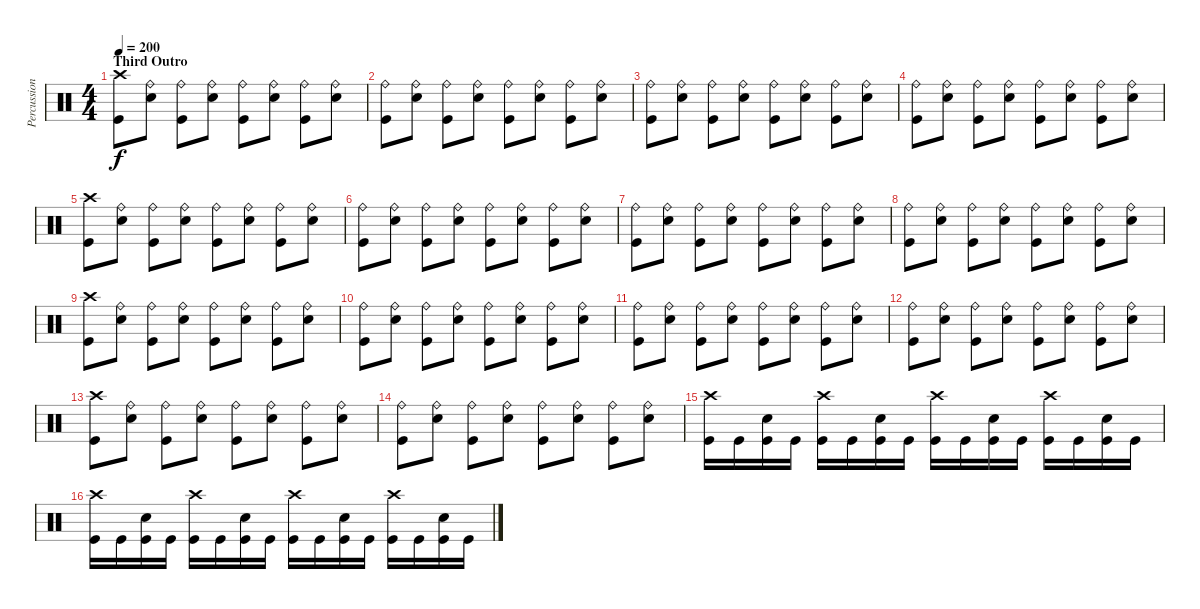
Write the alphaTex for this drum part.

\track ("Percussion" "Percussion") {instrument percussion}
\staff {score}
\articulation defaults
\ts (4 4)
\section ("" "Third Outro")
\tempo 200
\tempo 204
\tempo 200
\clef neutral
\ks c
("Crash high (hit)" "Kick (hit)").8{dy f} ("Ride (bell)" "Electric Snare (hit)").8 ("Ride (bell)" "Kick (hit)").8 ("Ride (bell)" "Electric Snare (hit)").8 ("Ride (bell)" "Kick (hit)").8 ("Ride (bell)" "Electric Snare (hit)").8 ("Ride (bell)" "Kick (hit)").8 ("Ride (bell)" "Electric Snare (hit)").8 |
("Ride (bell)" "Kick (hit)").8 ("Ride (bell)" "Electric Snare (hit)").8 ("Ride (bell)" "Kick (hit)").8 ("Ride (bell)" "Electric Snare (hit)").8 ("Ride (bell)" "Kick (hit)").8 ("Ride (bell)" "Electric Snare (hit)").8 ("Ride (bell)" "Kick (hit)").8 ("Ride (bell)" "Electric Snare (hit)").8 |
("Ride (bell)" "Kick (hit)").8 ("Ride (bell)" "Electric Snare (hit)").8 ("Ride (bell)" "Kick (hit)").8 ("Ride (bell)" "Electric Snare (hit)").8 ("Ride (bell)" "Kick (hit)").8 ("Ride (bell)" "Electric Snare (hit)").8 ("Ride (bell)" "Kick (hit)").8 ("Ride (bell)" "Electric Snare (hit)").8 |
("Ride (bell)" "Kick (hit)").8 ("Ride (bell)" "Electric Snare (hit)").8 ("Ride (bell)" "Kick (hit)").8 ("Ride (bell)" "Electric Snare (hit)").8 ("Ride (bell)" "Kick (hit)").8 ("Ride (bell)" "Electric Snare (hit)").8 ("Ride (bell)" "Kick (hit)").8 ("Ride (bell)" "Electric Snare (hit)").8 |
("Crash high (hit)" "Kick (hit)").8 ("Ride (bell)" "Electric Snare (hit)").8 ("Ride (bell)" "Kick (hit)").8 ("Ride (bell)" "Electric Snare (hit)").8 ("Ride (bell)" "Kick (hit)").8 ("Ride (bell)" "Electric Snare (hit)").8 ("Ride (bell)" "Kick (hit)").8 ("Ride (bell)" "Electric Snare (hit)").8 |
("Ride (bell)" "Kick (hit)").8 ("Ride (bell)" "Electric Snare (hit)").8 ("Ride (bell)" "Kick (hit)").8 ("Ride (bell)" "Electric Snare (hit)").8 ("Ride (bell)" "Kick (hit)").8 ("Ride (bell)" "Electric Snare (hit)").8 ("Ride (bell)" "Kick (hit)").8 ("Ride (bell)" "Electric Snare (hit)").8 |
("Ride (bell)" "Kick (hit)").8 ("Ride (bell)" "Electric Snare (hit)").8 ("Ride (bell)" "Kick (hit)").8 ("Ride (bell)" "Electric Snare (hit)").8 ("Ride (bell)" "Kick (hit)").8 ("Ride (bell)" "Electric Snare (hit)").8 ("Ride (bell)" "Kick (hit)").8 ("Ride (bell)" "Electric Snare (hit)").8 |
("Ride (bell)" "Kick (hit)").8 ("Ride (bell)" "Electric Snare (hit)").8 ("Ride (bell)" "Kick (hit)").8 ("Ride (bell)" "Electric Snare (hit)").8 ("Ride (bell)" "Kick (hit)").8 ("Ride (bell)" "Electric Snare (hit)").8 ("Ride (bell)" "Kick (hit)").8 ("Ride (bell)" "Electric Snare (hit)").8 |
("Crash high (hit)" "Kick (hit)").8 ("Ride (bell)" "Electric Snare (hit)").8 ("Ride (bell)" "Kick (hit)").8 ("Ride (bell)" "Electric Snare (hit)").8 ("Ride (bell)" "Kick (hit)").8 ("Ride (bell)" "Electric Snare (hit)").8 ("Ride (bell)" "Kick (hit)").8 ("Ride (bell)" "Electric Snare (hit)").8 |
("Ride (bell)" "Kick (hit)").8 ("Ride (bell)" "Electric Snare (hit)").8 ("Ride (bell)" "Kick (hit)").8 ("Ride (bell)" "Electric Snare (hit)").8 ("Ride (bell)" "Kick (hit)").8 ("Ride (bell)" "Electric Snare (hit)").8 ("Ride (bell)" "Kick (hit)").8 ("Ride (bell)" "Electric Snare (hit)").8 |
("Ride (bell)" "Kick (hit)").8 ("Ride (bell)" "Electric Snare (hit)").8 ("Ride (bell)" "Kick (hit)").8 ("Ride (bell)" "Electric Snare (hit)").8 ("Ride (bell)" "Kick (hit)").8 ("Ride (bell)" "Electric Snare (hit)").8 ("Ride (bell)" "Kick (hit)").8 ("Ride (bell)" "Electric Snare (hit)").8 |
("Ride (bell)" "Kick (hit)").8 ("Ride (bell)" "Electric Snare (hit)").8 ("Ride (bell)" "Kick (hit)").8 ("Ride (bell)" "Electric Snare (hit)").8 ("Ride (bell)" "Kick (hit)").8 ("Ride (bell)" "Electric Snare (hit)").8 ("Ride (bell)" "Kick (hit)").8 ("Ride (bell)" "Electric Snare (hit)").8 |
("Crash high (hit)" "Kick (hit)").8 ("Ride (bell)" "Electric Snare (hit)").8 ("Ride (bell)" "Kick (hit)").8 ("Ride (bell)" "Electric Snare (hit)").8 ("Ride (bell)" "Kick (hit)").8 ("Ride (bell)" "Electric Snare (hit)").8 ("Ride (bell)" "Kick (hit)").8 ("Ride (bell)" "Electric Snare (hit)").8 |
("Ride (bell)" "Kick (hit)").8 ("Ride (bell)" "Electric Snare (hit)").8 ("Ride (bell)" "Kick (hit)").8 ("Ride (bell)" "Electric Snare (hit)").8 ("Ride (bell)" "Kick (hit)").8 ("Ride (bell)" "Electric Snare (hit)").8 ("Ride (bell)" "Kick (hit)").8 ("Ride (bell)" "Electric Snare (hit)").8 |
("Crash high (hit)" "Kick (hit)").16 "Kick (hit)".16 ("Electric Snare (hit)" "Kick (hit)").16 "Kick (hit)".16 ("Crash high (hit)" "Kick (hit)").16 "Kick (hit)".16 ("Electric Snare (hit)" "Kick (hit)").16 "Kick (hit)".16 ("Crash high (hit)" "Kick (hit)").16 "Kick (hit)".16 ("Electric Snare (hit)" "Kick (hit)").16 "Kick (hit)".16 ("Crash high (hit)" "Kick (hit)").16 "Kick (hit)".16 ("Electric Snare (hit)" "Kick (hit)").16 "Kick (hit)".16 |
("Crash high (hit)" "Kick (hit)").16 "Kick (hit)".16 ("Electric Snare (hit)" "Kick (hit)").16 "Kick (hit)".16 ("Crash high (hit)" "Kick (hit)").16 "Kick (hit)".16 ("Electric Snare (hit)" "Kick (hit)").16 "Kick (hit)".16 ("Crash high (hit)" "Kick (hit)").16 "Kick (hit)".16 ("Electric Snare (hit)" "Kick (hit)").16 "Kick (hit)".16 ("Crash high (hit)" "Kick (hit)").16 "Kick (hit)".16 ("Electric Snare (hit)" "Kick (hit)").16 "Kick (hit)".16
